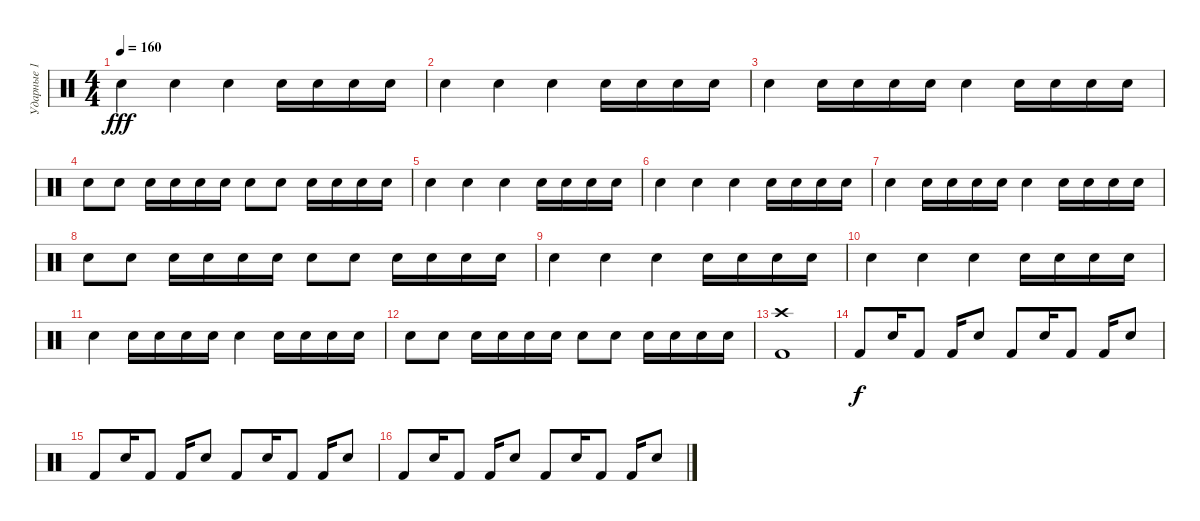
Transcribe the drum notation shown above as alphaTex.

\track ("Ударные 1" "Ударные 1") {instrument percussion}
\staff {score}
\articulation defaults
\ts (4 4)
\tempo 160
\clef neutral
\ks c "Snare (hit) 2".4{dy fff} "Snare (hit) 2".4 "Snare (hit) 2".4 "Snare (hit) 2".16 "Snare (hit) 2".16 "Snare (hit) 2".16 "Snare (hit) 2".16
|
"Snare (hit) 2".4 "Snare (hit) 2".4 "Snare (hit) 2".4 "Snare (hit) 2".16 "Snare (hit) 2".16 "Snare (hit) 2".16 "Snare (hit) 2".16 |
"Snare (hit) 2".4 "Snare (hit) 2".16 "Snare (hit) 2".16 "Snare (hit) 2".16 "Snare (hit) 2".16 "Snare (hit) 2".4 "Snare (hit) 2".16 "Snare (hit) 2".16 "Snare (hit) 2".16 "Snare (hit) 2".16 |
"Snare (hit) 2".8 "Snare (hit) 2".8 "Snare (hit) 2".16 "Snare (hit) 2".16 "Snare (hit) 2".16 "Snare (hit) 2".16 "Snare (hit) 2".8 "Snare (hit) 2".8 "Snare (hit) 2".16 "Snare (hit) 2".16 "Snare (hit) 2".16 "Snare (hit) 2".16 |
"Snare (hit) 2".4 "Snare (hit) 2".4 "Snare (hit) 2".4 "Snare (hit) 2".16 "Snare (hit) 2".16 "Snare (hit) 2".16 "Snare (hit) 2".16 |
"Snare (hit) 2".4 "Snare (hit) 2".4 "Snare (hit) 2".4 "Snare (hit) 2".16 "Snare (hit) 2".16 "Snare (hit) 2".16 "Snare (hit) 2".16 |
"Snare (hit) 2".4 "Snare (hit) 2".16 "Snare (hit) 2".16 "Snare (hit) 2".16 "Snare (hit) 2".16 "Snare (hit) 2".4 "Snare (hit) 2".16 "Snare (hit) 2".16 "Snare (hit) 2".16 "Snare (hit) 2".16 |
"Snare (hit) 2".8 "Snare (hit) 2".8 "Snare (hit) 2".16 "Snare (hit) 2".16 "Snare (hit) 2".16 "Snare (hit) 2".16 "Snare (hit) 2".8 "Snare (hit) 2".8 "Snare (hit) 2".16 "Snare (hit) 2".16 "Snare (hit) 2".16 "Snare (hit) 2".16 |
"Snare (hit) 2".4 "Snare (hit) 2".4 "Snare (hit) 2".4 "Snare (hit) 2".16 "Snare (hit) 2".16 "Snare (hit) 2".16 "Snare (hit) 2".16 |
"Snare (hit) 2".4 "Snare (hit) 2".4 "Snare (hit) 2".4 "Snare (hit) 2".16 "Snare (hit) 2".16 "Snare (hit) 2".16 "Snare (hit) 2".16 |
"Snare (hit) 2".4 "Snare (hit) 2".16 "Snare (hit) 2".16 "Snare (hit) 2".16 "Snare (hit) 2".16 "Snare (hit) 2".4 "Snare (hit) 2".16 "Snare (hit) 2".16 "Snare (hit) 2".16 "Snare (hit) 2".16 |
"Snare (hit) 2".8 "Snare (hit) 2".8 "Snare (hit) 2".16 "Snare (hit) 2".16 "Snare (hit) 2".16 "Snare (hit) 2".16 "Snare (hit) 2".8 "Snare (hit) 2".8 "Snare (hit) 2".16 "Snare (hit) 2".16 "Snare (hit) 2".16 "Snare (hit) 2".16 |
("Kick (hit) 2" "Crash high (hit)").1 |
"Kick (hit) 2".8{dy f} "Snare (hit) 2".16 "Kick (hit) 2".8 "Kick (hit) 2".16 "Snare (hit) 2".8 "Kick (hit) 2".8 "Snare (hit) 2".16 "Kick (hit) 2".8 "Kick (hit) 2".16 "Snare (hit) 2".8 |
"Kick (hit) 2".8 "Snare (hit) 2".16 "Kick (hit) 2".8 "Kick (hit) 2".16 "Snare (hit) 2".8 "Kick (hit) 2".8 "Snare (hit) 2".16 "Kick (hit) 2".8 "Kick (hit) 2".16 "Snare (hit) 2".8 |
"Kick (hit) 2".8 "Snare (hit) 2".16 "Kick (hit) 2".8 "Kick (hit) 2".16 "Snare (hit) 2".8 "Kick (hit) 2".8 "Snare (hit) 2".16 "Kick (hit) 2".8 "Kick (hit) 2".16 "Snare (hit) 2".8
